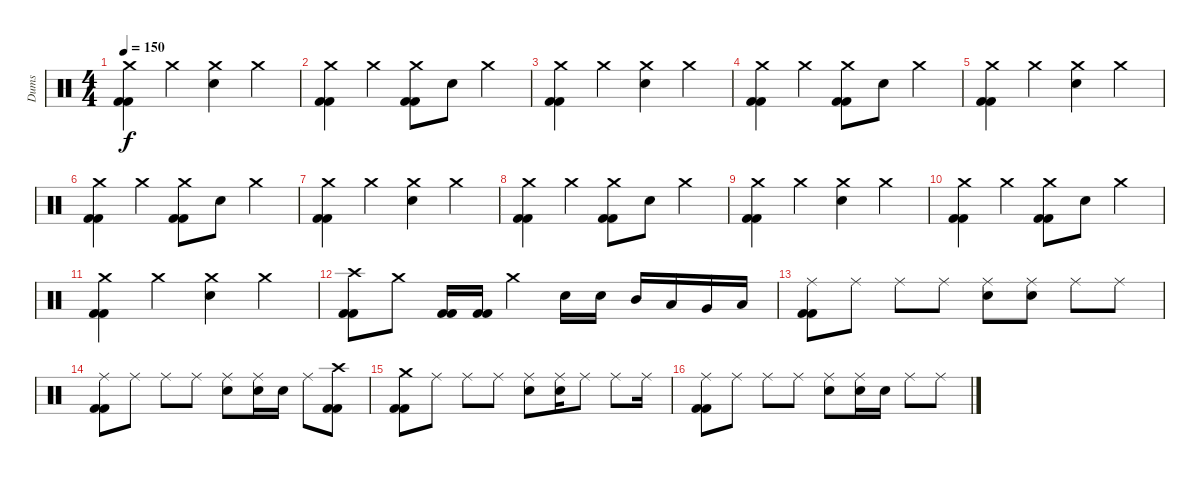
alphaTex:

\track ("Dums" "Dums") {instrument percussion}
\staff {score}
\articulation defaults
\ts (4 4)
\tempo 150
\clef neutral
\ks c
("Crash medium (hit)" "Kick (hit) 2" "Kick (hit) 2").4{dy f} "Crash medium (hit)".4 ("Crash medium (hit)" "Electric Snare (hit)").4 "Crash medium (hit)".4 |
("Crash medium (hit)" "Kick (hit) 2" "Kick (hit) 2").4 "Crash medium (hit)".4 ("Crash medium (hit)" "Kick (hit) 2" "Kick (hit) 2").8 "Electric Snare (hit)".8 "Crash medium (hit)".4 |
("Crash medium (hit)" "Kick (hit) 2" "Kick (hit) 2").4 "Crash medium (hit)".4 ("Crash medium (hit)" "Electric Snare (hit)").4 "Crash medium (hit)".4 |
("Crash medium (hit)" "Kick (hit) 2" "Kick (hit) 2").4 "Crash medium (hit)".4 ("Crash medium (hit)" "Kick (hit) 2" "Kick (hit) 2").8 "Electric Snare (hit)".8 "Crash medium (hit)".4 |
("Crash medium (hit)" "Kick (hit) 2" "Kick (hit) 2").4 "Crash medium (hit)".4 ("Crash medium (hit)" "Electric Snare (hit)").4 "Crash medium (hit)".4 |
("Crash medium (hit)" "Kick (hit) 2" "Kick (hit) 2").4 "Crash medium (hit)".4 ("Crash medium (hit)" "Kick (hit) 2" "Kick (hit) 2").8 "Electric Snare (hit)".8 "Crash medium (hit)".4 |
("Crash medium (hit)" "Kick (hit) 2" "Kick (hit) 2").4 "Crash medium (hit)".4 ("Crash medium (hit)" "Electric Snare (hit)").4 "Crash medium (hit)".4 |
("Crash medium (hit)" "Kick (hit) 2" "Kick (hit) 2").4 "Crash medium (hit)".4 ("Crash medium (hit)" "Kick (hit) 2" "Kick (hit) 2").8 "Electric Snare (hit)".8 "Crash medium (hit)".4 |
("Crash medium (hit)" "Kick (hit) 2" "Kick (hit) 2").4 "Crash medium (hit)".4 ("Crash medium (hit)" "Electric Snare (hit)").4 "Crash medium (hit)".4 |
("Crash medium (hit)" "Kick (hit) 2" "Kick (hit) 2").4 "Crash medium (hit)".4 ("Crash medium (hit)" "Kick (hit) 2" "Kick (hit) 2").8 "Electric Snare (hit)".8 "Crash medium (hit)".4 |
("Crash medium (hit)" "Kick (hit) 2" "Kick (hit) 2").4 "Crash medium (hit)".4 ("Crash medium (hit)" "Electric Snare (hit)").4 "Crash medium (hit)".4 |
("Crash high (hit)" "Kick (hit) 2" "Kick (hit) 2").8 "Crash medium (hit)".8 ("Kick (hit) 2" "Kick (hit) 2").16 ("Kick (hit) 2" "Kick (hit) 2").16 "Crash medium (hit)".4 "Electric Snare (hit)".16 "Electric Snare (hit)".16 "Mid Tom (hit)".16 "Low Tom (hit)".16 "Very Low Tom (hit)".16 "Low Floor Tom (hit)".16 |
("Ride (middle)" "Kick (hit) 2" "Kick (hit) 2").8 "Ride (middle)".8 "Ride (middle)".8 "Ride (middle)".8 ("Ride (middle)" "Electric Snare (hit)").8 ("Ride (middle)" "Electric Snare (hit)").8 "Ride (middle)".8 "Ride (middle)".8 |
("Ride (middle)" "Kick (hit) 2" "Kick (hit) 2").8 "Ride (middle)".8 "Ride (middle)".8 "Ride (middle)".8 ("Ride (middle)" "Electric Snare (hit)").8 ("Ride (middle)" "Electric Snare (hit)").16 "Electric Snare (hit)".16 "Ride (middle)".8 ("Crash high (hit)" "Kick (hit) 2" "Kick (hit) 2").8 |
("Crash medium (hit)" "Kick (hit) 2" "Kick (hit) 2").8 "Ride (middle)".8 "Ride (middle)".8 "Ride (middle)".8 ("Ride (middle)" "Electric Snare (hit)").8 ("Ride (middle)" "Electric Snare (hit)").16 "Ride (middle)".8 "Ride (middle)".8 "Ride (middle)".16 |
("Ride (middle)" "Kick (hit) 2" "Kick (hit) 2").8 "Ride (middle)".8 "Ride (middle)".8 "Ride (middle)".8 ("Ride (middle)" "Electric Snare (hit)").8 ("Ride (middle)" "Electric Snare (hit)").16 "Electric Snare (hit)".16 "Ride (middle)".8 "Ride (middle)".8
